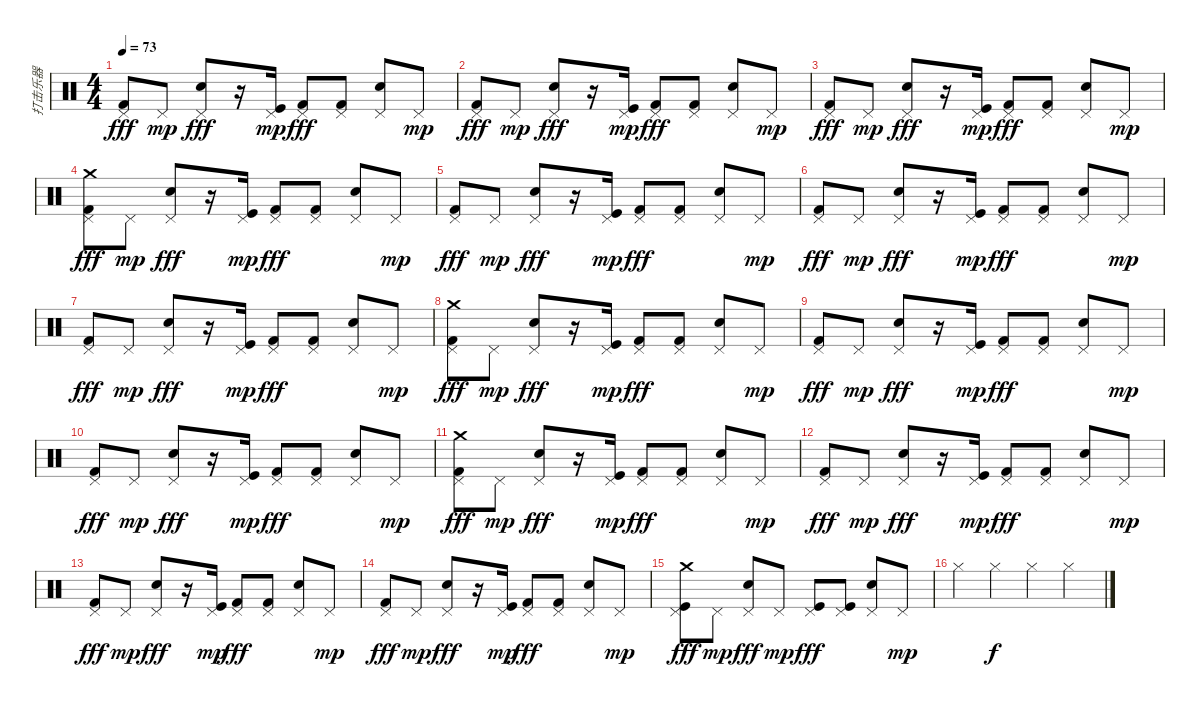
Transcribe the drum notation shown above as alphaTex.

\track ("打击乐器" "打击乐器") {instrument percussion}
\staff {score}
\articulation defaults
\ts (4 4)
\tempo 73
\clef neutral
\ks c
("Pedal Hi-Hat (hit)" "Kick (hit) 2").8{dy fff} "Pedal Hi-Hat (hit)".8{dy mp} ("Pedal Hi-Hat (hit)" "Electric Snare (hit)").8{dy fff} r.16 ("Pedal Hi-Hat (hit)" "Kick (hit)").16{dy mp} ("Pedal Hi-Hat (hit)" "Kick (hit) 2").8{dy fff} ("Pedal Hi-Hat (hit)" "Kick (hit) 2").8 ("Pedal Hi-Hat (hit)" "Electric Snare (hit)").8 "Pedal Hi-Hat (hit)".8{dy mp} |
("Pedal Hi-Hat (hit)" "Kick (hit) 2").8{dy fff} "Pedal Hi-Hat (hit)".8{dy mp} ("Pedal Hi-Hat (hit)" "Electric Snare (hit)").8{dy fff} r.16 ("Pedal Hi-Hat (hit)" "Kick (hit)").16{dy mp} ("Pedal Hi-Hat (hit)" "Kick (hit) 2").8{dy fff} ("Pedal Hi-Hat (hit)" "Kick (hit) 2").8 ("Pedal Hi-Hat (hit)" "Electric Snare (hit)").8 "Pedal Hi-Hat (hit)".8{dy mp} |
("Pedal Hi-Hat (hit)" "Kick (hit) 2").8{dy fff} "Pedal Hi-Hat (hit)".8{dy mp} ("Pedal Hi-Hat (hit)" "Electric Snare (hit)").8{dy fff} r.16 ("Pedal Hi-Hat (hit)" "Kick (hit)").16{dy mp} ("Pedal Hi-Hat (hit)" "Kick (hit) 2").8{dy fff} ("Pedal Hi-Hat (hit)" "Kick (hit) 2").8 ("Pedal Hi-Hat (hit)" "Electric Snare (hit)").8 "Pedal Hi-Hat (hit)".8{dy mp} |
("Pedal Hi-Hat (hit)" "Kick (hit) 2" "Crash medium (hit)").8{dy fff} "Pedal Hi-Hat (hit)".8{dy mp} ("Pedal Hi-Hat (hit)" "Electric Snare (hit)").8{dy fff} r.16 ("Pedal Hi-Hat (hit)" "Kick (hit)").16{dy mp} ("Pedal Hi-Hat (hit)" "Kick (hit) 2").8{dy fff} ("Pedal Hi-Hat (hit)" "Kick (hit) 2").8 ("Pedal Hi-Hat (hit)" "Electric Snare (hit)").8 "Pedal Hi-Hat (hit)".8{dy mp} |
("Pedal Hi-Hat (hit)" "Kick (hit) 2").8{dy fff} "Pedal Hi-Hat (hit)".8{dy mp} ("Pedal Hi-Hat (hit)" "Electric Snare (hit)").8{dy fff} r.16 ("Pedal Hi-Hat (hit)" "Kick (hit)").16{dy mp} ("Pedal Hi-Hat (hit)" "Kick (hit) 2").8{dy fff} ("Pedal Hi-Hat (hit)" "Kick (hit) 2").8 ("Pedal Hi-Hat (hit)" "Electric Snare (hit)").8 "Pedal Hi-Hat (hit)".8{dy mp} |
("Pedal Hi-Hat (hit)" "Kick (hit) 2").8{dy fff} "Pedal Hi-Hat (hit)".8{dy mp} ("Pedal Hi-Hat (hit)" "Electric Snare (hit)").8{dy fff} r.16 ("Pedal Hi-Hat (hit)" "Kick (hit)").16{dy mp} ("Pedal Hi-Hat (hit)" "Kick (hit) 2").8{dy fff} ("Pedal Hi-Hat (hit)" "Kick (hit) 2").8 ("Pedal Hi-Hat (hit)" "Electric Snare (hit)").8 "Pedal Hi-Hat (hit)".8{dy mp} |
("Pedal Hi-Hat (hit)" "Kick (hit) 2").8{dy fff} "Pedal Hi-Hat (hit)".8{dy mp} ("Pedal Hi-Hat (hit)" "Electric Snare (hit)").8{dy fff} r.16 ("Pedal Hi-Hat (hit)" "Kick (hit)").16{dy mp} ("Pedal Hi-Hat (hit)" "Kick (hit) 2").8{dy fff} ("Pedal Hi-Hat (hit)" "Kick (hit) 2").8 ("Pedal Hi-Hat (hit)" "Electric Snare (hit)").8 "Pedal Hi-Hat (hit)".8{dy mp} |
("Pedal Hi-Hat (hit)" "Kick (hit) 2" "Crash medium (hit)").8{dy fff} "Pedal Hi-Hat (hit)".8{dy mp} ("Pedal Hi-Hat (hit)" "Electric Snare (hit)").8{dy fff} r.16 ("Pedal Hi-Hat (hit)" "Kick (hit)").16{dy mp} ("Pedal Hi-Hat (hit)" "Kick (hit) 2").8{dy fff} ("Pedal Hi-Hat (hit)" "Kick (hit) 2").8 ("Pedal Hi-Hat (hit)" "Electric Snare (hit)").8 "Pedal Hi-Hat (hit)".8{dy mp} |
("Pedal Hi-Hat (hit)" "Kick (hit) 2").8{dy fff} "Pedal Hi-Hat (hit)".8{dy mp} ("Pedal Hi-Hat (hit)" "Electric Snare (hit)").8{dy fff} r.16 ("Pedal Hi-Hat (hit)" "Kick (hit)").16{dy mp} ("Pedal Hi-Hat (hit)" "Kick (hit) 2").8{dy fff} ("Pedal Hi-Hat (hit)" "Kick (hit) 2").8 ("Pedal Hi-Hat (hit)" "Electric Snare (hit)").8 "Pedal Hi-Hat (hit)".8{dy mp} |
("Pedal Hi-Hat (hit)" "Kick (hit) 2").8{dy fff} "Pedal Hi-Hat (hit)".8{dy mp} ("Pedal Hi-Hat (hit)" "Electric Snare (hit)").8{dy fff} r.16 ("Pedal Hi-Hat (hit)" "Kick (hit)").16{dy mp} ("Pedal Hi-Hat (hit)" "Kick (hit) 2").8{dy fff} ("Pedal Hi-Hat (hit)" "Kick (hit) 2").8 ("Pedal Hi-Hat (hit)" "Electric Snare (hit)").8 "Pedal Hi-Hat (hit)".8{dy mp} |
("Pedal Hi-Hat (hit)" "Kick (hit) 2" "Crash medium (hit)").8{dy fff} "Pedal Hi-Hat (hit)".8{dy mp} ("Pedal Hi-Hat (hit)" "Electric Snare (hit)").8{dy fff} r.16 ("Pedal Hi-Hat (hit)" "Kick (hit)").16{dy mp} ("Pedal Hi-Hat (hit)" "Kick (hit) 2").8{dy fff} ("Pedal Hi-Hat (hit)" "Kick (hit) 2").8 ("Pedal Hi-Hat (hit)" "Electric Snare (hit)").8 "Pedal Hi-Hat (hit)".8{dy mp} |
("Pedal Hi-Hat (hit)" "Kick (hit) 2").8{dy fff} "Pedal Hi-Hat (hit)".8{dy mp} ("Pedal Hi-Hat (hit)" "Electric Snare (hit)").8{dy fff} r.16 ("Pedal Hi-Hat (hit)" "Kick (hit)").16{dy mp} ("Pedal Hi-Hat (hit)" "Kick (hit) 2").8{dy fff} ("Pedal Hi-Hat (hit)" "Kick (hit) 2").8 ("Pedal Hi-Hat (hit)" "Electric Snare (hit)").8 "Pedal Hi-Hat (hit)".8{dy mp} |
("Pedal Hi-Hat (hit)" "Kick (hit) 2").8{dy fff} "Pedal Hi-Hat (hit)".8{dy mp} ("Pedal Hi-Hat (hit)" "Electric Snare (hit)").8{dy fff} r.16 ("Pedal Hi-Hat (hit)" "Kick (hit)").16{dy mp} ("Pedal Hi-Hat (hit)" "Kick (hit) 2").8{dy fff} ("Pedal Hi-Hat (hit)" "Kick (hit) 2").8 ("Pedal Hi-Hat (hit)" "Electric Snare (hit)").8 "Pedal Hi-Hat (hit)".8{dy mp} |
("Pedal Hi-Hat (hit)" "Kick (hit) 2").8{dy fff} "Pedal Hi-Hat (hit)".8{dy mp} ("Pedal Hi-Hat (hit)" "Electric Snare (hit)").8{dy fff} r.16 ("Pedal Hi-Hat (hit)" "Kick (hit)").16{dy mp} ("Pedal Hi-Hat (hit)" "Kick (hit) 2").8{dy fff} ("Pedal Hi-Hat (hit)" "Kick (hit) 2").8 ("Pedal Hi-Hat (hit)" "Electric Snare (hit)").8 "Pedal Hi-Hat (hit)".8{dy mp} |
("Pedal Hi-Hat (hit)" "Kick (hit)" "Crash medium (hit)").8{dy fff} "Pedal Hi-Hat (hit)".8{dy mp} ("Pedal Hi-Hat (hit)" "Snare (hit) 2").8{dy fff} "Pedal Hi-Hat (hit)".8{dy mp} ("Pedal Hi-Hat (hit)" "Kick (hit)").8{dy fff} ("Pedal Hi-Hat (hit)" "Kick (hit)").8 ("Pedal Hi-Hat (hit)" "Snare (hit) 2").8 "Pedal Hi-Hat (hit)".8{dy mp} |
"Hi-Hat (closed)".4 "Hi-Hat (closed)".4{dy f} "Hi-Hat (closed)".4 "Hi-Hat (closed)".4
